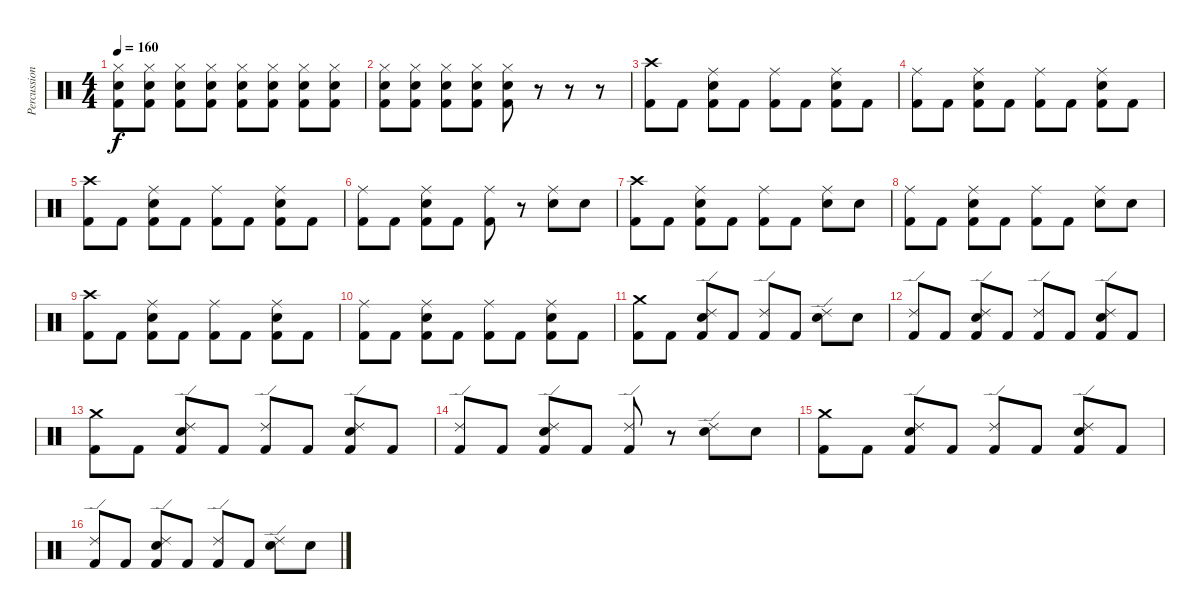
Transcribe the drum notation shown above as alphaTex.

\track ("Percussion" "Percussion") {instrument percussion}
\staff {score}
\articulation defaults
\ts (4 4)
\tempo 160
\clef neutral
\ks c
("Hi-Hat (closed)" "Electric Snare (hit)" "Kick (hit) 2").8{dy f} ("Hi-Hat (closed)" "Electric Snare (hit)" "Kick (hit) 2").8 ("Hi-Hat (closed)" "Electric Snare (hit)" "Kick (hit) 2").8 ("Hi-Hat (closed)" "Electric Snare (hit)" "Kick (hit) 2").8 ("Hi-Hat (closed)" "Electric Snare (hit)" "Kick (hit) 2").8 ("Hi-Hat (closed)" "Electric Snare (hit)" "Kick (hit) 2").8 ("Hi-Hat (closed)" "Electric Snare (hit)" "Kick (hit) 2").8 ("Hi-Hat (closed)" "Electric Snare (hit)" "Kick (hit) 2").8 |
("Hi-Hat (closed)" "Electric Snare (hit)" "Kick (hit) 2").8 ("Hi-Hat (closed)" "Electric Snare (hit)" "Kick (hit) 2").8 ("Hi-Hat (closed)" "Electric Snare (hit)" "Kick (hit) 2").8 ("Hi-Hat (closed)" "Electric Snare (hit)" "Kick (hit) 2").8 ("Hi-Hat (closed)" "Electric Snare (hit)" "Kick (hit) 2").8 r.8 r.8 r.8 |
("Crash high (hit)" "Kick (hit) 2").8 "Kick (hit) 2".8 ("Ride (middle)" "Electric Snare (hit)" "Kick (hit) 2").8 "Kick (hit) 2".8 ("Ride (middle)" "Kick (hit) 2").8 "Kick (hit) 2".8 ("Ride (middle)" "Electric Snare (hit)" "Kick (hit) 2").8 "Kick (hit) 2".8 |
("Ride (middle)" "Kick (hit) 2").8 "Kick (hit) 2".8 ("Ride (middle)" "Electric Snare (hit)" "Kick (hit) 2").8 "Kick (hit) 2".8 ("Ride (middle)" "Kick (hit) 2").8 "Kick (hit) 2".8 ("Ride (middle)" "Electric Snare (hit)" "Kick (hit) 2").8 "Kick (hit) 2".8 |
("Crash high (hit)" "Kick (hit) 2").8 "Kick (hit) 2".8 ("Ride (middle)" "Electric Snare (hit)" "Kick (hit) 2").8 "Kick (hit) 2".8 ("Ride (middle)" "Kick (hit) 2").8 "Kick (hit) 2".8 ("Ride (middle)" "Electric Snare (hit)" "Kick (hit) 2").8 "Kick (hit) 2".8 |
("Ride (middle)" "Kick (hit) 2").8 "Kick (hit) 2".8 ("Ride (middle)" "Electric Snare (hit)" "Kick (hit) 2").8 "Kick (hit) 2".8 ("Ride (middle)" "Kick (hit) 2").8 r.8 ("Ride (middle)" "Electric Snare (hit)").8 "Electric Snare (hit)".8 |
("Crash high (hit)" "Kick (hit) 2").8 "Kick (hit) 2".8 ("Ride (middle)" "Electric Snare (hit)" "Kick (hit) 2").8 "Kick (hit) 2".8 ("Ride (middle)" "Kick (hit) 2").8 "Kick (hit) 2".8 ("Ride (middle)" "Electric Snare (hit)").8 "Electric Snare (hit)".8 |
("Ride (middle)" "Kick (hit) 2").8 "Kick (hit) 2".8 ("Ride (middle)" "Electric Snare (hit)" "Kick (hit) 2").8 "Kick (hit) 2".8 ("Ride (middle)" "Kick (hit) 2").8 "Kick (hit) 2".8 ("Ride (middle)" "Electric Snare (hit)").8 "Electric Snare (hit)".8 |
("Crash high (hit)" "Kick (hit) 2").8 "Kick (hit) 2".8 ("Ride (middle)" "Electric Snare (hit)" "Kick (hit) 2").8 "Kick (hit) 2".8 ("Ride (middle)" "Kick (hit) 2").8 "Kick (hit) 2".8 ("Ride (middle)" "Electric Snare (hit)" "Kick (hit) 2").8 "Kick (hit) 2".8 |
("Ride (middle)" "Kick (hit) 2").8 "Kick (hit) 2".8 ("Ride (middle)" "Electric Snare (hit)" "Kick (hit) 2").8 "Kick (hit) 2".8 ("Ride (middle)" "Kick (hit) 2").8 "Kick (hit) 2".8 ("Ride (middle)" "Electric Snare (hit)" "Kick (hit) 2").8 "Kick (hit) 2".8 |
("Crash medium (hit)" "Kick (hit) 2").8 "Kick (hit) 2".8 ("Ride (edge) 2" "Electric Snare (hit)" "Kick (hit) 2").8 "Kick (hit) 2".8 ("Ride (edge) 2" "Kick (hit) 2").8 "Kick (hit) 2".8 ("Ride (edge) 2" "Electric Snare (hit)").8 "Electric Snare (hit)".8 |
("Ride (edge) 2" "Kick (hit) 2").8 "Kick (hit) 2".8 ("Ride (edge) 2" "Electric Snare (hit)" "Kick (hit) 2").8 "Kick (hit) 2".8 ("Ride (edge) 2" "Kick (hit) 2").8 "Kick (hit) 2".8 ("Ride (edge) 2" "Electric Snare (hit)" "Kick (hit) 2").8 "Kick (hit) 2".8 |
("Crash medium (hit)" "Kick (hit) 2").8 "Kick (hit) 2".8 ("Ride (edge) 2" "Electric Snare (hit)" "Kick (hit) 2").8 "Kick (hit) 2".8 ("Ride (edge) 2" "Kick (hit) 2").8 "Kick (hit) 2".8 ("Ride (edge) 2" "Electric Snare (hit)" "Kick (hit) 2").8 "Kick (hit) 2".8 |
("Ride (edge) 2" "Kick (hit) 2").8 "Kick (hit) 2".8 ("Ride (edge) 2" "Electric Snare (hit)" "Kick (hit) 2").8 "Kick (hit) 2".8 ("Ride (edge) 2" "Kick (hit) 2").8 r.8 ("Ride (edge) 2" "Electric Snare (hit)").8 "Electric Snare (hit)".8 |
("Crash medium (hit)" "Kick (hit) 2").8 "Kick (hit) 2".8 ("Ride (edge) 2" "Electric Snare (hit)" "Kick (hit) 2").8 "Kick (hit) 2".8 ("Ride (edge) 2" "Kick (hit) 2").8 "Kick (hit) 2".8 ("Ride (edge) 2" "Electric Snare (hit)" "Kick (hit) 2").8 "Kick (hit) 2".8 |
("Ride (edge) 2" "Kick (hit) 2").8 "Kick (hit) 2".8 ("Ride (edge) 2" "Electric Snare (hit)" "Kick (hit) 2").8 "Kick (hit) 2".8 ("Ride (edge) 2" "Kick (hit) 2").8 "Kick (hit) 2".8 ("Ride (edge) 2" "Electric Snare (hit)").8 "Electric Snare (hit)".8
